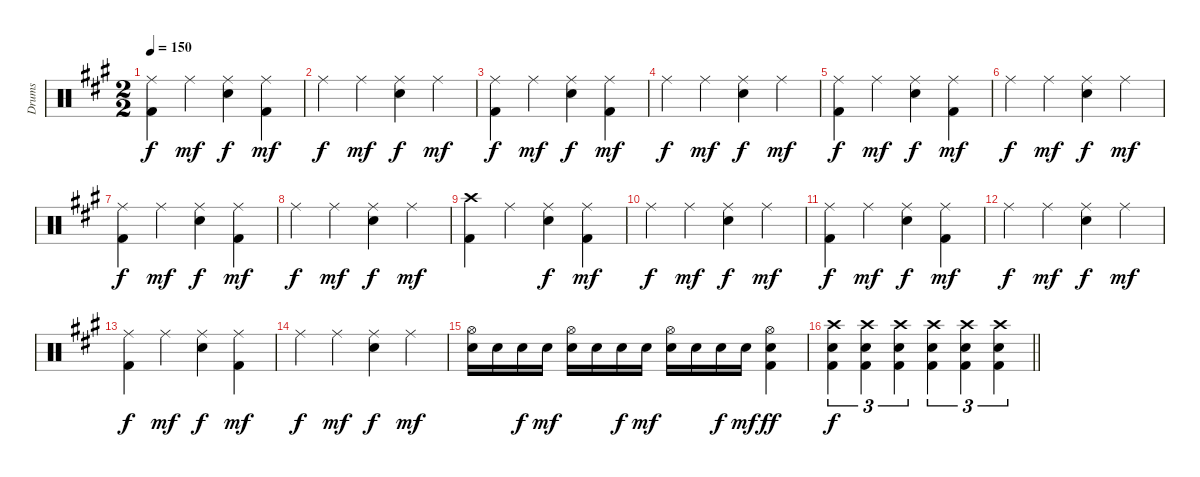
\track ("Drums" "Drums") {instrument percussion}
\staff {score}
\articulation defaults
\ts (2 2)
\tempo 150
\clef neutral
\ks a
("Ride (middle)" "Kick (hit) 2").4{dy f} "Ride (middle)".4{dy mf} ("Ride (middle)" "Electric Snare (hit)").4{dy f} ("Ride (middle)" "Kick (hit) 2").4{dy mf} |
"Ride (middle)".4{dy f} "Ride (middle)".4{dy mf} ("Ride (middle)" "Electric Snare (hit)").4{dy f} "Ride (middle)".4{dy mf} |
("Ride (middle)" "Kick (hit) 2").4{dy f} "Ride (middle)".4{dy mf} ("Ride (middle)" "Electric Snare (hit)").4{dy f} ("Ride (middle)" "Kick (hit) 2").4{dy mf} |
"Ride (middle)".4{dy f} "Ride (middle)".4{dy mf} ("Ride (middle)" "Electric Snare (hit)").4{dy f} "Ride (middle)".4{dy mf} |
("Ride (middle)" "Kick (hit) 2").4{dy f} "Ride (middle)".4{dy mf} ("Ride (middle)" "Electric Snare (hit)").4{dy f} ("Ride (middle)" "Kick (hit) 2").4{dy mf} |
"Ride (middle)".4{dy f} "Ride (middle)".4{dy mf} ("Ride (middle)" "Electric Snare (hit)").4{dy f} "Ride (middle)".4{dy mf} |
("Ride (middle)" "Kick (hit) 2").4{dy f} "Ride (middle)".4{dy mf} ("Ride (middle)" "Electric Snare (hit)").4{dy f} ("Ride (middle)" "Kick (hit) 2").4{dy mf} |
"Ride (middle)".4{dy f} "Ride (middle)".4{dy mf} ("Ride (middle)" "Electric Snare (hit)").4{dy f} "Ride (middle)".4{dy mf} |
("Crash high (hit)" "Kick (hit) 2").4 "Ride (middle)".4 ("Ride (middle)" "Electric Snare (hit)").4{dy f} ("Ride (middle)" "Kick (hit) 2").4{dy mf} |
"Ride (middle)".4{dy f} "Ride (middle)".4{dy mf} ("Ride (middle)" "Electric Snare (hit)").4{dy f} "Ride (middle)".4{dy mf} |
("Ride (middle)" "Kick (hit) 2").4{dy f} "Ride (middle)".4{dy mf} ("Ride (middle)" "Electric Snare (hit)").4{dy f} ("Ride (middle)" "Kick (hit) 2").4{dy mf} |
"Ride (middle)".4{dy f} "Ride (middle)".4{dy mf} ("Ride (middle)" "Electric Snare (hit)").4{dy f} "Ride (middle)".4{dy mf} |
("Ride (middle)" "Kick (hit) 2").4{dy f} "Ride (middle)".4{dy mf} ("Ride (middle)" "Electric Snare (hit)").4{dy f} ("Ride (middle)" "Kick (hit) 2").4{dy mf} |
"Ride (middle)".4{dy f} "Ride (middle)".4{dy mf} ("Ride (middle)" "Electric Snare (hit)").4{dy f} "Ride (middle)".4{dy mf} |
("Hi-Hat (open)" "Electric Snare (hit)").16 "Electric Snare (hit)".16 "Electric Snare (hit)".16{dy f} "Electric Snare (hit)".16{dy mf} ("Hi-Hat (open)" "Electric Snare (hit)").16 "Electric Snare (hit)".16 "Electric Snare (hit)".16{dy f} "Electric Snare (hit)".16{dy mf} ("Hi-Hat (open)" "Electric Snare (hit)").16 "Electric Snare (hit)".16 "Electric Snare (hit)".16{dy f} "Electric Snare (hit)".16{dy mf} ("Hi-Hat (open)" "Electric Snare (hit)" "Kick (hit) 2").4{dy ff} |
\barLineRight lightlight
("Crash high (hit)" "Electric Snare (hit)" "Kick (hit) 2").4{tu (3 2) dy f} ("Crash high (hit)" "Electric Snare (hit)" "Kick (hit) 2").4{tu (3 2)} ("Crash high (hit)" "Electric Snare (hit)" "Kick (hit) 2").4{tu (3 2)} ("Crash high (hit)" "Electric Snare (hit)" "Kick (hit) 2").4{tu (3 2)} ("Crash high (hit)" "Electric Snare (hit)" "Kick (hit) 2").4{tu (3 2)} ("Crash high (hit)" "Electric Snare (hit)" "Kick (hit) 2").4{tu (3 2)}
